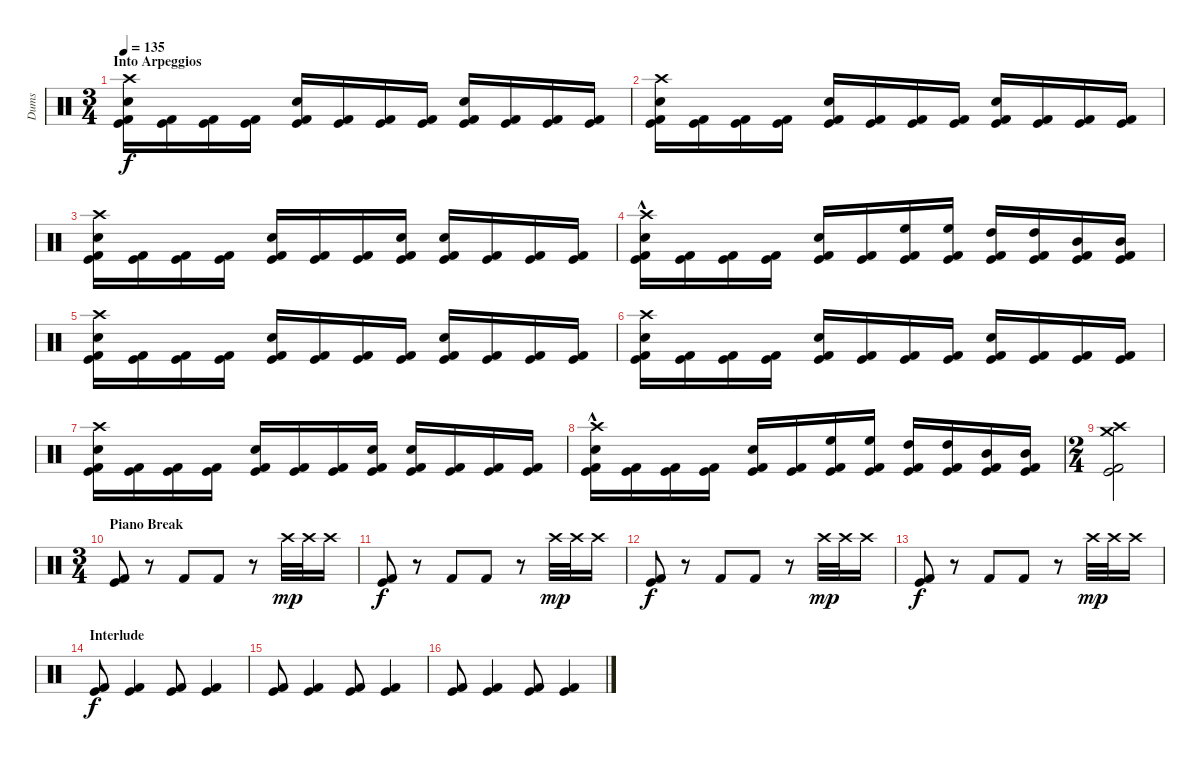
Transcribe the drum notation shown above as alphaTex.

\track ("Dums" "Dums") {instrument percussion}
\staff {score}
\articulation defaults
\ts (3 4)
\section ("" "Into Arpeggios")
\tempo 135
\clef neutral
\ks c
("Crash high (hit)" "Snare (hit) 2" "Kick (hit)" "Kick (hit) 2").16{dy f} ("Kick (hit)" "Kick (hit) 2").16 ("Kick (hit)" "Kick (hit) 2").16 ("Kick (hit)" "Kick (hit) 2").16 ("Snare (hit) 2" "Kick (hit)" "Kick (hit) 2").16 ("Kick (hit)" "Kick (hit) 2").16 ("Kick (hit)" "Kick (hit) 2").16 ("Kick (hit)" "Kick (hit) 2").16 ("Snare (hit) 2" "Kick (hit)" "Kick (hit) 2").16 ("Kick (hit)" "Kick (hit) 2").16 ("Kick (hit)" "Kick (hit) 2").16 ("Kick (hit)" "Kick (hit) 2").16 |
("Crash high (hit)" "Snare (hit) 2" "Kick (hit)" "Kick (hit) 2").16 ("Kick (hit)" "Kick (hit) 2").16 ("Kick (hit)" "Kick (hit) 2").16 ("Kick (hit)" "Kick (hit) 2").16 ("Snare (hit) 2" "Kick (hit)" "Kick (hit) 2").16 ("Kick (hit)" "Kick (hit) 2").16 ("Kick (hit)" "Kick (hit) 2").16 ("Kick (hit)" "Kick (hit) 2").16 ("Snare (hit) 2" "Kick (hit)" "Kick (hit) 2").16 ("Kick (hit)" "Kick (hit) 2").16 ("Kick (hit)" "Kick (hit) 2").16 ("Kick (hit)" "Kick (hit) 2").16 |
("Crash high (hit)" "Snare (hit) 2" "Kick (hit)" "Kick (hit) 2").16 ("Kick (hit)" "Kick (hit) 2").16 ("Kick (hit)" "Kick (hit) 2").16 ("Kick (hit)" "Kick (hit) 2").16 ("Snare (hit) 2" "Kick (hit)" "Kick (hit) 2").16 ("Kick (hit)" "Kick (hit) 2").16 ("Kick (hit)" "Kick (hit) 2").16 ("Snare (hit) 2" "Kick (hit)" "Kick (hit) 2").16 ("Snare (hit) 2" "Kick (hit)" "Kick (hit) 2").16 ("Kick (hit)" "Kick (hit) 2").16 ("Kick (hit)" "Kick (hit) 2").16 ("Kick (hit)" "Kick (hit) 2").16 |
("Crash high (hit)"{hac} "Snare (hit) 2" "Kick (hit)" "Kick (hit) 2").16 ("Kick (hit)" "Kick (hit) 2").16 ("Kick (hit)" "Kick (hit) 2").16 ("Kick (hit)" "Kick (hit) 2").16 ("Snare (hit) 2" "Kick (hit)" "Kick (hit) 2").16 ("Kick (hit)" "Kick (hit) 2").16 ("High Floor Tom (hit)" "Kick (hit)" "Kick (hit) 2").16 ("High Floor Tom (hit)" "Kick (hit)" "Kick (hit) 2").16 ("High Tom (hit)" "Kick (hit)" "Kick (hit) 2").16 ("High Tom (hit)" "Kick (hit)" "Kick (hit) 2").16 ("Mid Tom (hit)" "Kick (hit)" "Kick (hit) 2").16 ("Mid Tom (hit)" "Kick (hit)" "Kick (hit) 2").16 |
("Crash high (hit)" "Snare (hit) 2" "Kick (hit)" "Kick (hit) 2").16 ("Kick (hit)" "Kick (hit) 2").16 ("Kick (hit)" "Kick (hit) 2").16 ("Kick (hit)" "Kick (hit) 2").16 ("Snare (hit) 2" "Kick (hit)" "Kick (hit) 2").16 ("Kick (hit)" "Kick (hit) 2").16 ("Kick (hit)" "Kick (hit) 2").16 ("Kick (hit)" "Kick (hit) 2").16 ("Snare (hit) 2" "Kick (hit)" "Kick (hit) 2").16 ("Kick (hit)" "Kick (hit) 2").16 ("Kick (hit)" "Kick (hit) 2").16 ("Kick (hit)" "Kick (hit) 2").16 |
("Crash high (hit)" "Snare (hit) 2" "Kick (hit)" "Kick (hit) 2").16 ("Kick (hit)" "Kick (hit) 2").16 ("Kick (hit)" "Kick (hit) 2").16 ("Kick (hit)" "Kick (hit) 2").16 ("Snare (hit) 2" "Kick (hit)" "Kick (hit) 2").16 ("Kick (hit)" "Kick (hit) 2").16 ("Kick (hit)" "Kick (hit) 2").16 ("Kick (hit)" "Kick (hit) 2").16 ("Snare (hit) 2" "Kick (hit)" "Kick (hit) 2").16 ("Kick (hit)" "Kick (hit) 2").16 ("Kick (hit)" "Kick (hit) 2").16 ("Kick (hit)" "Kick (hit) 2").16 |
("Crash high (hit)" "Snare (hit) 2" "Kick (hit)" "Kick (hit) 2").16 ("Kick (hit)" "Kick (hit) 2").16 ("Kick (hit)" "Kick (hit) 2").16 ("Kick (hit)" "Kick (hit) 2").16 ("Snare (hit) 2" "Kick (hit)" "Kick (hit) 2").16 ("Kick (hit)" "Kick (hit) 2").16 ("Kick (hit)" "Kick (hit) 2").16 ("Snare (hit) 2" "Kick (hit)" "Kick (hit) 2").16 ("Snare (hit) 2" "Kick (hit)" "Kick (hit) 2").16 ("Kick (hit)" "Kick (hit) 2").16 ("Kick (hit)" "Kick (hit) 2").16 ("Kick (hit)" "Kick (hit) 2").16 |
("Crash high (hit)"{hac} "Snare (hit) 2" "Kick (hit)" "Kick (hit) 2").16 ("Kick (hit)" "Kick (hit) 2").16 ("Kick (hit)" "Kick (hit) 2").16 ("Kick (hit)" "Kick (hit) 2").16 ("Snare (hit) 2" "Kick (hit)" "Kick (hit) 2").16 ("Kick (hit)" "Kick (hit) 2").16 ("High Floor Tom (hit)" "Kick (hit)" "Kick (hit) 2").16 ("High Floor Tom (hit)" "Kick (hit)" "Kick (hit) 2").16 ("High Tom (hit)" "Kick (hit)" "Kick (hit) 2").16 ("High Tom (hit)" "Kick (hit)" "Kick (hit) 2").16 ("Mid Tom (hit)" "Kick (hit)" "Kick (hit) 2").16 ("Mid Tom (hit)" "Kick (hit)" "Kick (hit) 2").16 |
\ts (2 4)
("Crash high (hit)" "Crash medium (hit)" "Kick (hit)" "Kick (hit) 2").2 |
\ts (3 4)
\section ("" "Piano Break")
("Kick (hit)" "Kick (hit) 2").8 r.8 "Kick (hit) 2".8 "Kick (hit) 2".8 r.8 "Crash high (hit)".32{dy mp} "Crash high (hit)".32 "Crash high (hit)".16 |
("Kick (hit)" "Kick (hit) 2").8{dy f} r.8 "Kick (hit) 2".8 "Kick (hit) 2".8 r.8 "Crash high (hit)".32{dy mp} "Crash high (hit)".32 "Crash high (hit)".16 |
("Kick (hit)" "Kick (hit) 2").8{dy f} r.8 "Kick (hit) 2".8 "Kick (hit) 2".8 r.8 "Crash high (hit)".32{dy mp} "Crash high (hit)".32 "Crash high (hit)".16 |
("Kick (hit)" "Kick (hit) 2").8{dy f} r.8 "Kick (hit) 2".8 "Kick (hit) 2".8 r.8 "Crash high (hit)".32{dy mp} "Crash high (hit)".32 "Crash high (hit)".16 |
\section ("" "Interlude")
("Kick (hit)" "Kick (hit) 2").8{dy f} ("Kick (hit)" "Kick (hit) 2").4 ("Kick (hit)" "Kick (hit) 2").8 ("Kick (hit)" "Kick (hit) 2").4 |
("Kick (hit)" "Kick (hit) 2").8 ("Kick (hit)" "Kick (hit) 2").4 ("Kick (hit)" "Kick (hit) 2").8 ("Kick (hit)" "Kick (hit) 2").4 |
("Kick (hit)" "Kick (hit) 2").8 ("Kick (hit)" "Kick (hit) 2").4 ("Kick (hit)" "Kick (hit) 2").8 ("Kick (hit)" "Kick (hit) 2").4
